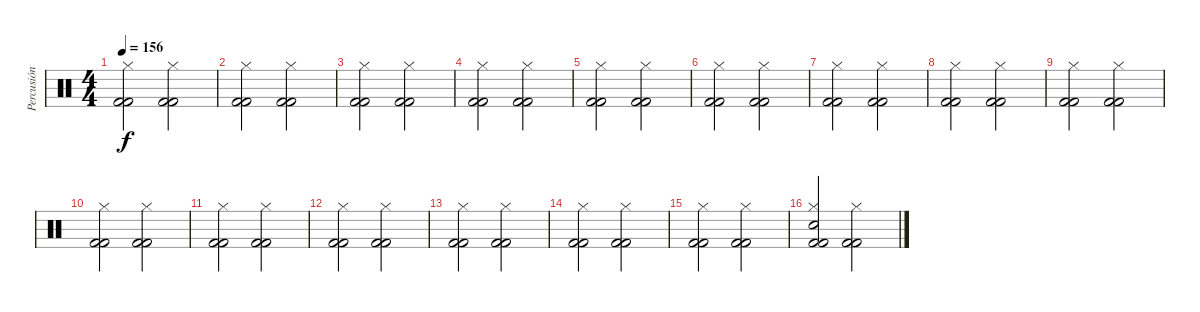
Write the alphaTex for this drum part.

\track ("Percusión" "Percusión") {instrument percussion}
\staff {score}
\articulation defaults
\ts (4 4)
\tempo 156
\clef neutral
\ks c
("Kick (hit) 2" "Kick (hit) 2" "Hi-Hat (closed)").2{dy f} ("Kick (hit) 2" "Kick (hit) 2" "Hi-Hat (closed)").2 |
("Kick (hit) 2" "Kick (hit) 2" "Hi-Hat (closed)").2 ("Kick (hit) 2" "Kick (hit) 2" "Hi-Hat (closed)").2 |
("Kick (hit) 2" "Kick (hit) 2" "Hi-Hat (closed)").2 ("Kick (hit) 2" "Kick (hit) 2" "Hi-Hat (closed)").2 |
("Kick (hit) 2" "Kick (hit) 2" "Hi-Hat (closed)").2 ("Kick (hit) 2" "Kick (hit) 2" "Hi-Hat (closed)").2 |
("Kick (hit) 2" "Kick (hit) 2" "Hi-Hat (closed)").2 ("Kick (hit) 2" "Kick (hit) 2" "Hi-Hat (closed)").2 |
("Kick (hit) 2" "Kick (hit) 2" "Hi-Hat (closed)").2 ("Kick (hit) 2" "Kick (hit) 2" "Hi-Hat (closed)").2 |
("Kick (hit) 2" "Kick (hit) 2" "Hi-Hat (closed)").2 ("Kick (hit) 2" "Kick (hit) 2" "Hi-Hat (closed)").2 |
("Kick (hit) 2" "Kick (hit) 2" "Hi-Hat (closed)").2 ("Kick (hit) 2" "Kick (hit) 2" "Hi-Hat (closed)").2 |
("Kick (hit) 2" "Kick (hit) 2" "Hi-Hat (closed)").2 ("Kick (hit) 2" "Kick (hit) 2" "Hi-Hat (closed)").2 |
("Kick (hit) 2" "Kick (hit) 2" "Hi-Hat (closed)").2 ("Kick (hit) 2" "Kick (hit) 2" "Hi-Hat (closed)").2 |
("Kick (hit) 2" "Kick (hit) 2" "Hi-Hat (closed)").2 ("Kick (hit) 2" "Kick (hit) 2" "Hi-Hat (closed)").2 |
("Kick (hit) 2" "Kick (hit) 2" "Hi-Hat (closed)").2 ("Kick (hit) 2" "Kick (hit) 2" "Hi-Hat (closed)").2 |
("Kick (hit) 2" "Kick (hit) 2" "Hi-Hat (closed)").2 ("Kick (hit) 2" "Kick (hit) 2" "Hi-Hat (closed)").2 |
("Kick (hit) 2" "Kick (hit) 2" "Hi-Hat (closed)").2 ("Kick (hit) 2" "Kick (hit) 2" "Hi-Hat (closed)").2 |
("Kick (hit) 2" "Kick (hit) 2" "Hi-Hat (closed)").2 ("Kick (hit) 2" "Kick (hit) 2" "Hi-Hat (closed)").2 |
("Kick (hit) 2" "Kick (hit) 2" "Hi-Hat (closed)" "Snare (hit) 2").2 ("Kick (hit) 2" "Kick (hit) 2" "Hi-Hat (closed)").2
